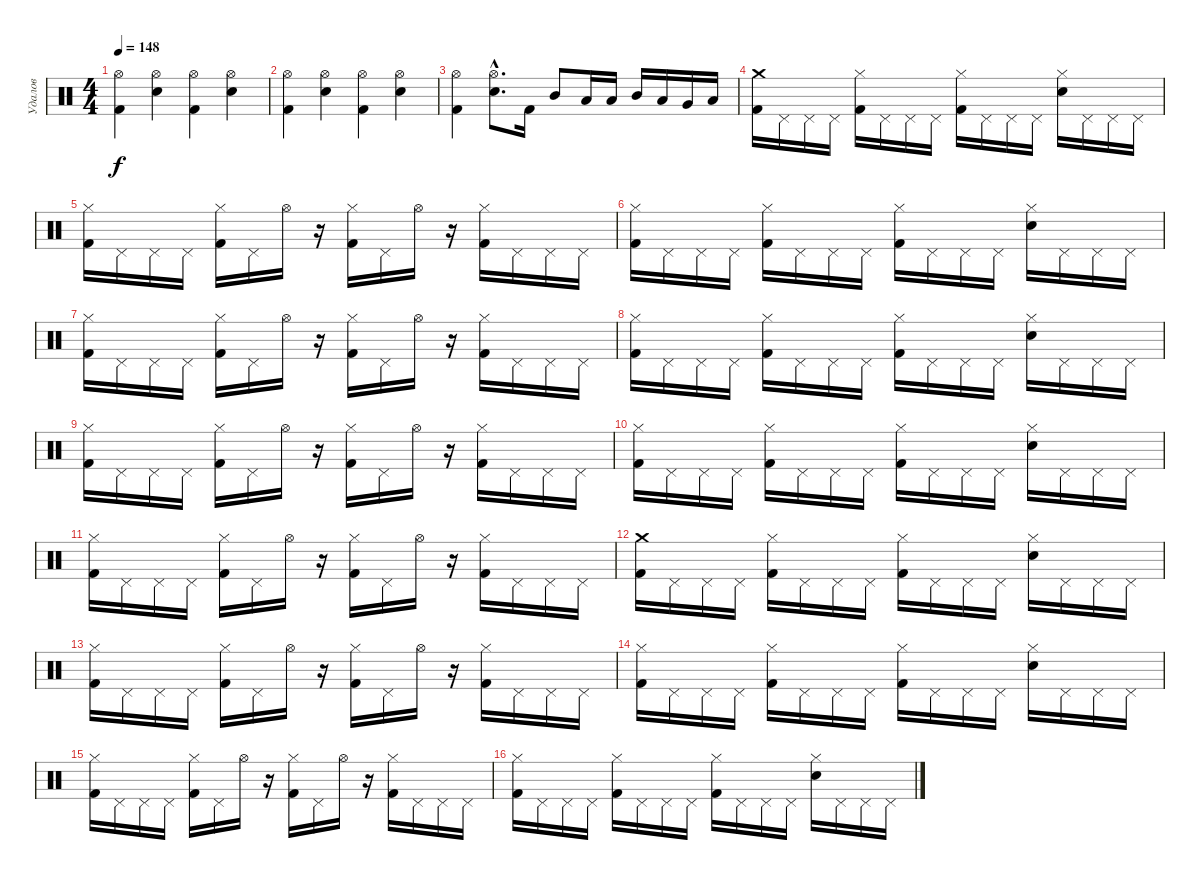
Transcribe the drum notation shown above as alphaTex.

\track ("Удалов" "Удалов") {instrument percussion}
\staff {score}
\articulation defaults
\ts (4 4)
\tempo 148
\clef neutral
\ks c
("Kick (hit) 2" "Hi-Hat (open)").4{dy f} ("Snare (hit) 2" "Hi-Hat (open)").4 ("Kick (hit) 2" "Hi-Hat (open)").4 ("Snare (hit) 2" "Hi-Hat (open)").4 |
("Kick (hit) 2" "Hi-Hat (open)").4 ("Snare (hit) 2" "Hi-Hat (open)").4 ("Kick (hit) 2" "Hi-Hat (open)").4 ("Snare (hit) 2" "Hi-Hat (open)").4 |
("Kick (hit) 2" "Hi-Hat (open)").4 ("Snare (hit) 2"{hac} "Hi-Hat (open)"{hac}).8{d} "Kick (hit) 2".16 "Mid Tom (hit)".8 "Low Tom (hit)".16 "Low Tom (hit)".16 "Mid Tom (hit)".16 "Low Tom (hit)".16 "Very Low Tom (hit)".16 "Low Floor Tom (hit)".16 |
("Kick (hit) 2" "Crash medium (hit)").16 "Pedal Hi-Hat (hit)".16 "Pedal Hi-Hat (hit)".16 "Pedal Hi-Hat (hit)".16 ("Kick (hit) 2" "Hi-Hat (closed)").16 "Pedal Hi-Hat (hit)".16 "Pedal Hi-Hat (hit)".16 "Pedal Hi-Hat (hit)".16 ("Kick (hit) 2" "Hi-Hat (closed)").16 "Pedal Hi-Hat (hit)".16 "Pedal Hi-Hat (hit)".16 "Pedal Hi-Hat (hit)".16 ("Hi-Hat (closed)" "Snare (hit) 2").16 "Pedal Hi-Hat (hit)".16 "Pedal Hi-Hat (hit)".16 "Pedal Hi-Hat (hit)".16 |
("Kick (hit) 2" "Hi-Hat (closed)").16 "Pedal Hi-Hat (hit)".16 "Pedal Hi-Hat (hit)".16 "Pedal Hi-Hat (hit)".16 ("Kick (hit) 2" "Hi-Hat (closed)").16 "Pedal Hi-Hat (hit)".16 "Hi-Hat (open)".16 r.16 ("Kick (hit) 2" "Hi-Hat (closed)").16 "Pedal Hi-Hat (hit)".16 "Hi-Hat (open)".16 r.16 ("Kick (hit) 2" "Hi-Hat (closed)").16 "Pedal Hi-Hat (hit)".16 "Pedal Hi-Hat (hit)".16 "Pedal Hi-Hat (hit)".16 |
("Kick (hit) 2" "Hi-Hat (closed)").16 "Pedal Hi-Hat (hit)".16 "Pedal Hi-Hat (hit)".16 "Pedal Hi-Hat (hit)".16 ("Kick (hit) 2" "Hi-Hat (closed)").16 "Pedal Hi-Hat (hit)".16 "Pedal Hi-Hat (hit)".16 "Pedal Hi-Hat (hit)".16 ("Kick (hit) 2" "Hi-Hat (closed)").16 "Pedal Hi-Hat (hit)".16 "Pedal Hi-Hat (hit)".16 "Pedal Hi-Hat (hit)".16 ("Hi-Hat (closed)" "Snare (hit) 2").16 "Pedal Hi-Hat (hit)".16 "Pedal Hi-Hat (hit)".16 "Pedal Hi-Hat (hit)".16 |
("Kick (hit) 2" "Hi-Hat (closed)").16 "Pedal Hi-Hat (hit)".16 "Pedal Hi-Hat (hit)".16 "Pedal Hi-Hat (hit)".16 ("Kick (hit) 2" "Hi-Hat (closed)").16 "Pedal Hi-Hat (hit)".16 "Hi-Hat (open)".16 r.16 ("Kick (hit) 2" "Hi-Hat (closed)").16 "Pedal Hi-Hat (hit)".16 "Hi-Hat (open)".16 r.16 ("Kick (hit) 2" "Hi-Hat (closed)").16 "Pedal Hi-Hat (hit)".16 "Pedal Hi-Hat (hit)".16 "Pedal Hi-Hat (hit)".16 |
("Kick (hit) 2" "Hi-Hat (closed)").16 "Pedal Hi-Hat (hit)".16 "Pedal Hi-Hat (hit)".16 "Pedal Hi-Hat (hit)".16 ("Kick (hit) 2" "Hi-Hat (closed)").16 "Pedal Hi-Hat (hit)".16 "Pedal Hi-Hat (hit)".16 "Pedal Hi-Hat (hit)".16 ("Kick (hit) 2" "Hi-Hat (closed)").16 "Pedal Hi-Hat (hit)".16 "Pedal Hi-Hat (hit)".16 "Pedal Hi-Hat (hit)".16 ("Hi-Hat (closed)" "Snare (hit) 2").16 "Pedal Hi-Hat (hit)".16 "Pedal Hi-Hat (hit)".16 "Pedal Hi-Hat (hit)".16 |
("Kick (hit) 2" "Hi-Hat (closed)").16 "Pedal Hi-Hat (hit)".16 "Pedal Hi-Hat (hit)".16 "Pedal Hi-Hat (hit)".16 ("Kick (hit) 2" "Hi-Hat (closed)").16 "Pedal Hi-Hat (hit)".16 "Hi-Hat (open)".16 r.16 ("Kick (hit) 2" "Hi-Hat (closed)").16 "Pedal Hi-Hat (hit)".16 "Hi-Hat (open)".16 r.16 ("Kick (hit) 2" "Hi-Hat (closed)").16 "Pedal Hi-Hat (hit)".16 "Pedal Hi-Hat (hit)".16 "Pedal Hi-Hat (hit)".16 |
("Kick (hit) 2" "Hi-Hat (closed)").16 "Pedal Hi-Hat (hit)".16 "Pedal Hi-Hat (hit)".16 "Pedal Hi-Hat (hit)".16 ("Kick (hit) 2" "Hi-Hat (closed)").16 "Pedal Hi-Hat (hit)".16 "Pedal Hi-Hat (hit)".16 "Pedal Hi-Hat (hit)".16 ("Kick (hit) 2" "Hi-Hat (closed)").16 "Pedal Hi-Hat (hit)".16 "Pedal Hi-Hat (hit)".16 "Pedal Hi-Hat (hit)".16 ("Hi-Hat (closed)" "Snare (hit) 2").16 "Pedal Hi-Hat (hit)".16 "Pedal Hi-Hat (hit)".16 "Pedal Hi-Hat (hit)".16 |
("Kick (hit) 2" "Hi-Hat (closed)").16 "Pedal Hi-Hat (hit)".16 "Pedal Hi-Hat (hit)".16 "Pedal Hi-Hat (hit)".16 ("Kick (hit) 2" "Hi-Hat (closed)").16 "Pedal Hi-Hat (hit)".16 "Hi-Hat (open)".16 r.16 ("Kick (hit) 2" "Hi-Hat (closed)").16 "Pedal Hi-Hat (hit)".16 "Hi-Hat (open)".16 r.16 ("Kick (hit) 2" "Hi-Hat (closed)").16 "Pedal Hi-Hat (hit)".16 "Pedal Hi-Hat (hit)".16 "Pedal Hi-Hat (hit)".16 |
("Kick (hit) 2" "Crash medium (hit)").16 "Pedal Hi-Hat (hit)".16 "Pedal Hi-Hat (hit)".16 "Pedal Hi-Hat (hit)".16 ("Kick (hit) 2" "Hi-Hat (closed)").16 "Pedal Hi-Hat (hit)".16 "Pedal Hi-Hat (hit)".16 "Pedal Hi-Hat (hit)".16 ("Kick (hit) 2" "Hi-Hat (closed)").16 "Pedal Hi-Hat (hit)".16 "Pedal Hi-Hat (hit)".16 "Pedal Hi-Hat (hit)".16 ("Hi-Hat (closed)" "Snare (hit) 2").16 "Pedal Hi-Hat (hit)".16 "Pedal Hi-Hat (hit)".16 "Pedal Hi-Hat (hit)".16 |
("Kick (hit) 2" "Hi-Hat (closed)").16 "Pedal Hi-Hat (hit)".16 "Pedal Hi-Hat (hit)".16 "Pedal Hi-Hat (hit)".16 ("Kick (hit) 2" "Hi-Hat (closed)").16 "Pedal Hi-Hat (hit)".16 "Hi-Hat (open)".16 r.16 ("Kick (hit) 2" "Hi-Hat (closed)").16 "Pedal Hi-Hat (hit)".16 "Hi-Hat (open)".16 r.16 ("Kick (hit) 2" "Hi-Hat (closed)").16 "Pedal Hi-Hat (hit)".16 "Pedal Hi-Hat (hit)".16 "Pedal Hi-Hat (hit)".16 |
("Kick (hit) 2" "Hi-Hat (closed)").16 "Pedal Hi-Hat (hit)".16 "Pedal Hi-Hat (hit)".16 "Pedal Hi-Hat (hit)".16 ("Kick (hit) 2" "Hi-Hat (closed)").16 "Pedal Hi-Hat (hit)".16 "Pedal Hi-Hat (hit)".16 "Pedal Hi-Hat (hit)".16 ("Kick (hit) 2" "Hi-Hat (closed)").16 "Pedal Hi-Hat (hit)".16 "Pedal Hi-Hat (hit)".16 "Pedal Hi-Hat (hit)".16 ("Hi-Hat (closed)" "Snare (hit) 2").16 "Pedal Hi-Hat (hit)".16 "Pedal Hi-Hat (hit)".16 "Pedal Hi-Hat (hit)".16 |
("Kick (hit) 2" "Hi-Hat (closed)").16 "Pedal Hi-Hat (hit)".16 "Pedal Hi-Hat (hit)".16 "Pedal Hi-Hat (hit)".16 ("Kick (hit) 2" "Hi-Hat (closed)").16 "Pedal Hi-Hat (hit)".16 "Hi-Hat (open)".16 r.16 ("Kick (hit) 2" "Hi-Hat (closed)").16 "Pedal Hi-Hat (hit)".16 "Hi-Hat (open)".16 r.16 ("Kick (hit) 2" "Hi-Hat (closed)").16 "Pedal Hi-Hat (hit)".16 "Pedal Hi-Hat (hit)".16 "Pedal Hi-Hat (hit)".16 |
("Kick (hit) 2" "Hi-Hat (closed)").16 "Pedal Hi-Hat (hit)".16 "Pedal Hi-Hat (hit)".16 "Pedal Hi-Hat (hit)".16 ("Kick (hit) 2" "Hi-Hat (closed)").16 "Pedal Hi-Hat (hit)".16 "Pedal Hi-Hat (hit)".16 "Pedal Hi-Hat (hit)".16 ("Kick (hit) 2" "Hi-Hat (closed)").16 "Pedal Hi-Hat (hit)".16 "Pedal Hi-Hat (hit)".16 "Pedal Hi-Hat (hit)".16 ("Hi-Hat (closed)" "Snare (hit) 2").16 "Pedal Hi-Hat (hit)".16 "Pedal Hi-Hat (hit)".16 "Pedal Hi-Hat (hit)".16
